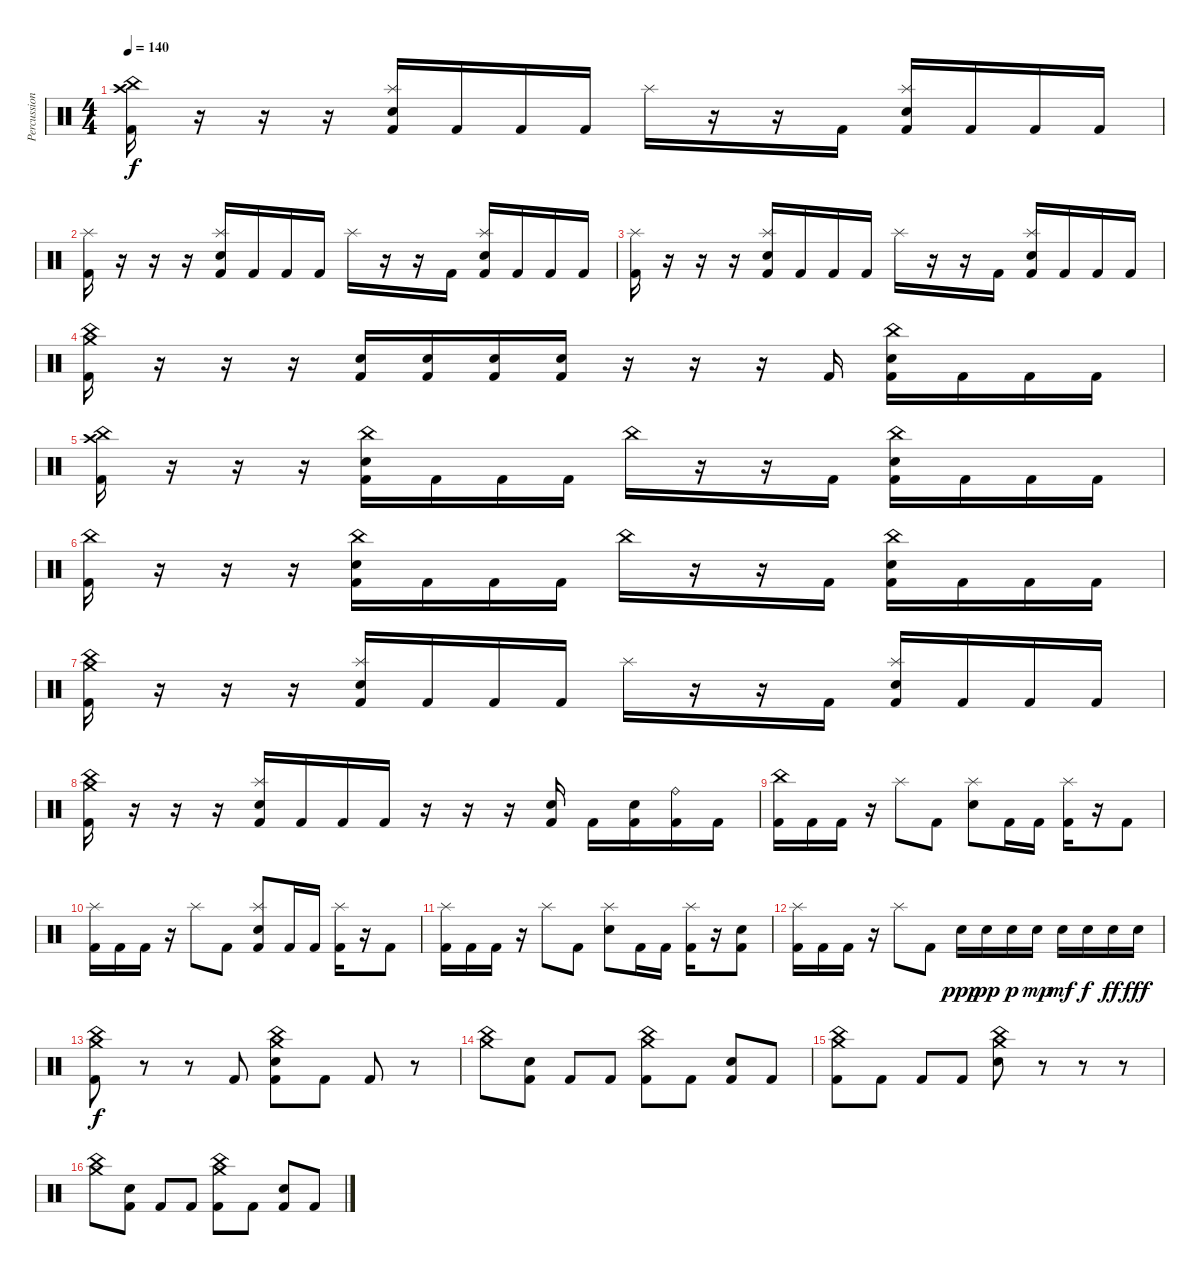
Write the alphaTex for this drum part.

\track ("Percussion" "Percussion") {instrument percussion}
\staff {score}
\articulation defaults
\ts (4 4)
\tempo 140
\clef neutral
\ks c
("China (hit)" "Crash high (hit)" "Kick (hit) 2").16{dy f} r.16 r.16 r.16 ("Splash (hit)" "Snare (hit) 2" "Kick (hit) 2").16 "Kick (hit) 2".16 "Kick (hit) 2".16 "Kick (hit) 2".16 "Splash (hit)".16 r.16 r.16 "Kick (hit) 2".16 ("Splash (hit)" "Snare (hit) 2" "Kick (hit) 2").16 "Kick (hit) 2".16 "Kick (hit) 2".16 "Kick (hit) 2".16 |
("Splash (hit)" "Kick (hit) 2").16 r.16 r.16 r.16 ("Splash (hit)" "Snare (hit) 2" "Kick (hit) 2").16 "Kick (hit) 2".16 "Kick (hit) 2".16 "Kick (hit) 2".16 "Splash (hit)".16 r.16 r.16 "Kick (hit) 2".16 ("Splash (hit)" "Snare (hit) 2" "Kick (hit) 2").16 "Kick (hit) 2".16 "Kick (hit) 2".16 "Kick (hit) 2".16 |
("Splash (hit)" "Kick (hit) 2").16 r.16 r.16 r.16 ("Splash (hit)" "Snare (hit) 2" "Kick (hit) 2").16 "Kick (hit) 2".16 "Kick (hit) 2".16 "Kick (hit) 2".16 "Splash (hit)".16 r.16 r.16 "Kick (hit) 2".16 ("Splash (hit)" "Snare (hit) 2" "Kick (hit) 2").16 "Kick (hit) 2".16 "Kick (hit) 2".16 "Kick (hit) 2".16 |
("China (hit)" "Crash medium (hit)" "Kick (hit) 2").16 r.16 r.16 r.16 ("Snare (hit) 2" "Kick (hit) 2").16 ("Snare (hit) 2" "Kick (hit) 2").16 ("Snare (hit) 2" "Kick (hit) 2").16 ("Snare (hit) 2" "Kick (hit) 2").16 r.16 r.16 r.16 "Kick (hit) 2".16 ("China (hit)" "Snare (hit) 2" "Kick (hit) 2").16 "Kick (hit) 2".16 "Kick (hit) 2".16 "Kick (hit) 2".16 |
("China (hit)" "Crash high (hit)" "Kick (hit) 2").16 r.16 r.16 r.16 ("China (hit)" "Snare (hit) 2" "Kick (hit) 2").16 "Kick (hit) 2".16 "Kick (hit) 2".16 "Kick (hit) 2".16 "China (hit)".16 r.16 r.16 "Kick (hit) 2".16 ("China (hit)" "Snare (hit) 2" "Kick (hit) 2").16 "Kick (hit) 2".16 "Kick (hit) 2".16 "Kick (hit) 2".16 |
("China (hit)" "Kick (hit) 2").16 r.16 r.16 r.16 ("China (hit)" "Snare (hit) 2" "Kick (hit) 2").16 "Kick (hit) 2".16 "Kick (hit) 2".16 "Kick (hit) 2".16 "China (hit)".16 r.16 r.16 "Kick (hit) 2".16 ("China (hit)" "Snare (hit) 2" "Kick (hit) 2").16 "Kick (hit) 2".16 "Kick (hit) 2".16 "Kick (hit) 2".16 |
("China (hit)" "Crash medium (hit)" "Kick (hit) 2").16 r.16 r.16 r.16 ("Splash (hit)" "Snare (hit) 2" "Kick (hit) 2").16 "Kick (hit) 2".16 "Kick (hit) 2".16 "Kick (hit) 2".16 "Splash (hit)".16 r.16 r.16 "Kick (hit) 2".16 ("Splash (hit)" "Snare (hit) 2" "Kick (hit) 2").16 "Kick (hit) 2".16 "Kick (hit) 2".16 "Kick (hit) 2".16 |
("China (hit)" "Crash medium (hit)" "Kick (hit) 2").16 r.16 r.16 r.16 ("Splash (hit)" "Snare (hit) 2" "Kick (hit) 2").16 "Kick (hit) 2".16 "Kick (hit) 2".16 "Kick (hit) 2".16 r.16 r.16 r.16 ("Snare (hit) 2" "Kick (hit) 2").16 "Kick (hit) 2".16 ("Snare (hit) 2" "Kick (hit) 2").16 ("Ride (bell)" "Kick (hit) 2").16 "Kick (hit) 2".16 |
("China (hit)" "Kick (hit) 2").16 "Kick (hit) 2".16 "Kick (hit) 2".16 r.16 "Splash (hit)".8 "Kick (hit) 2".8 ("Splash (hit)" "Snare (hit) 2").8 "Kick (hit) 2".16 "Kick (hit) 2".16 ("Splash (hit)" "Kick (hit) 2").16 r.16 "Kick (hit) 2".8 |
("Splash (hit)" "Kick (hit) 2").16 "Kick (hit) 2".16 "Kick (hit) 2".16 r.16 "Splash (hit)".8 "Kick (hit) 2".8 ("Splash (hit)" "Snare (hit) 2" "Kick (hit) 2").8 "Kick (hit) 2".16 "Kick (hit) 2".16 ("Splash (hit)" "Kick (hit) 2").16 r.16 "Kick (hit) 2".8 |
("Splash (hit)" "Kick (hit) 2").16 "Kick (hit) 2".16 "Kick (hit) 2".16 r.16 "Splash (hit)".8 "Kick (hit) 2".8 ("Splash (hit)" "Snare (hit) 2").8 "Kick (hit) 2".16 "Kick (hit) 2".16 ("Splash (hit)" "Kick (hit) 2").16 r.16 ("Snare (hit) 2" "Kick (hit) 2").8 |
("Splash (hit)" "Kick (hit) 2").16 "Kick (hit) 2".16 "Kick (hit) 2".16 r.16 "Splash (hit)".8 "Kick (hit) 2".8 "Snare (hit) 2".16{dy ppp} "Snare (hit) 2".16{dy pp} "Snare (hit) 2".16{dy p} "Snare (hit) 2".16{dy mp} "Snare (hit) 2".16{dy mf} "Snare (hit) 2".16{dy f} "Snare (hit) 2".16{dy ff} "Snare (hit) 2".16{dy fff} |
("China (hit)" "Crash medium (hit)" "Kick (hit) 2").8{dy f} r.8 r.8 "Kick (hit) 2".8 ("China (hit)" "Crash medium (hit)" "Snare (hit) 2" "Kick (hit) 2").8 "Kick (hit) 2".8 "Kick (hit) 2".8 r.8 |
("China (hit)" "Crash medium (hit)").8 ("Snare (hit) 2" "Kick (hit) 2").8 "Kick (hit) 2".8 "Kick (hit) 2".8 ("China (hit)" "Crash medium (hit)" "Kick (hit) 2").8 "Kick (hit) 2".8 ("Snare (hit) 2" "Kick (hit) 2").8 "Kick (hit) 2".8 |
("China (hit)" "Crash medium (hit)" "Kick (hit) 2").8 "Kick (hit) 2".8 "Kick (hit) 2".8 "Kick (hit) 2".8 ("China (hit)" "Crash medium (hit)" "Snare (hit) 2").8 r.8 r.8 r.8 |
("China (hit)" "Crash medium (hit)").8 ("Snare (hit) 2" "Kick (hit) 2").8 "Kick (hit) 2".8 "Kick (hit) 2".8 ("China (hit)" "Crash medium (hit)" "Kick (hit) 2").8 "Kick (hit) 2".8 ("Snare (hit) 2" "Kick (hit) 2").8 "Kick (hit) 2".8
